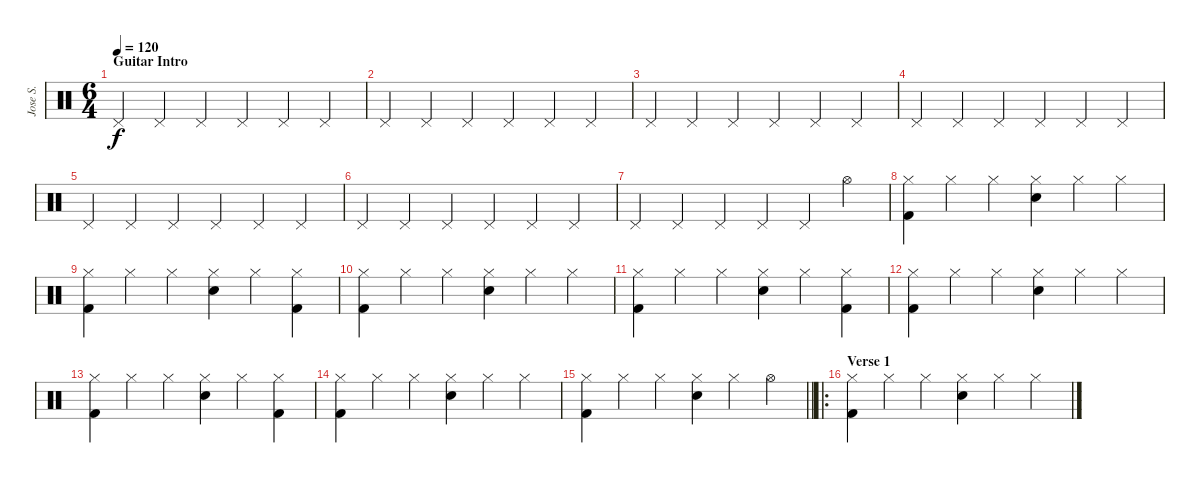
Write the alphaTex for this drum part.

\track ("Jose S." "Jose S.") {instrument percussion}
\staff {score}
\articulation defaults
\ts (6 4)
\section ("" "Guitar Intro")
\tempo 120
\clef neutral
\ks c "Pedal Hi-Hat (hit)".4{dy f} "Pedal Hi-Hat (hit)".4{volume 8} "Pedal Hi-Hat (hit)".4{volume 5} "Pedal Hi-Hat (hit)".4{volume 3} "Pedal Hi-Hat (hit)".4{volume 2} "Pedal Hi-Hat (hit)".4{volume 1}
|
"Pedal Hi-Hat (hit)".4{volume 13} "Pedal Hi-Hat (hit)".4{volume 8} "Pedal Hi-Hat (hit)".4{volume 5} "Pedal Hi-Hat (hit)".4{volume 3} "Pedal Hi-Hat (hit)".4{volume 2} "Pedal Hi-Hat (hit)".4{volume 1} |
"Pedal Hi-Hat (hit)".4{volume 13} "Pedal Hi-Hat (hit)".4{volume 8} "Pedal Hi-Hat (hit)".4{volume 5} "Pedal Hi-Hat (hit)".4{volume 3} "Pedal Hi-Hat (hit)".4{volume 2} "Pedal Hi-Hat (hit)".4{volume 1} |
"Pedal Hi-Hat (hit)".4{volume 13} "Pedal Hi-Hat (hit)".4{volume 8} "Pedal Hi-Hat (hit)".4{volume 5} "Pedal Hi-Hat (hit)".4{volume 3} "Pedal Hi-Hat (hit)".4{volume 2} "Pedal Hi-Hat (hit)".4{volume 1} |
"Pedal Hi-Hat (hit)".4{volume 13} "Pedal Hi-Hat (hit)".4{volume 8} "Pedal Hi-Hat (hit)".4{volume 5} "Pedal Hi-Hat (hit)".4{volume 3} "Pedal Hi-Hat (hit)".4{volume 2} "Pedal Hi-Hat (hit)".4{volume 1} |
"Pedal Hi-Hat (hit)".4{volume 13} "Pedal Hi-Hat (hit)".4{volume 8} "Pedal Hi-Hat (hit)".4{volume 5} "Pedal Hi-Hat (hit)".4{volume 3} "Pedal Hi-Hat (hit)".4{volume 2} "Pedal Hi-Hat (hit)".4{volume 1} |
"Pedal Hi-Hat (hit)".4{volume 13} "Pedal Hi-Hat (hit)".4{volume 8} "Pedal Hi-Hat (hit)".4{volume 5} "Pedal Hi-Hat (hit)".4{volume 3} "Pedal Hi-Hat (hit)".4{volume 2} "Hi-Hat (open)".4{volume 10} |
("Hi-Hat (closed)" "Kick (hit) 2").4{volume 13} "Hi-Hat (closed)".4 "Hi-Hat (closed)".4 ("Hi-Hat (closed)" "Snare (hit) 2").4 "Hi-Hat (closed)".4 "Hi-Hat (closed)".4 |
("Hi-Hat (closed)" "Kick (hit) 2").4 "Hi-Hat (closed)".4 "Hi-Hat (closed)".4 ("Hi-Hat (closed)" "Snare (hit) 2").4 "Hi-Hat (closed)".4 ("Hi-Hat (closed)" "Kick (hit) 2").4 |
("Hi-Hat (closed)" "Kick (hit) 2").4 "Hi-Hat (closed)".4 "Hi-Hat (closed)".4 ("Hi-Hat (closed)" "Snare (hit) 2").4 "Hi-Hat (closed)".4 "Hi-Hat (closed)".4 |
("Hi-Hat (closed)" "Kick (hit) 2").4 "Hi-Hat (closed)".4 "Hi-Hat (closed)".4 ("Hi-Hat (closed)" "Snare (hit) 2").4 "Hi-Hat (closed)".4 ("Hi-Hat (closed)" "Kick (hit) 2").4 |
("Hi-Hat (closed)" "Kick (hit) 2").4 "Hi-Hat (closed)".4 "Hi-Hat (closed)".4 ("Hi-Hat (closed)" "Snare (hit) 2").4 "Hi-Hat (closed)".4 "Hi-Hat (closed)".4 |
("Hi-Hat (closed)" "Kick (hit) 2").4 "Hi-Hat (closed)".4 "Hi-Hat (closed)".4 ("Hi-Hat (closed)" "Snare (hit) 2").4 "Hi-Hat (closed)".4 ("Hi-Hat (closed)" "Kick (hit) 2").4 |
("Hi-Hat (closed)" "Kick (hit) 2").4 "Hi-Hat (closed)".4 "Hi-Hat (closed)".4 ("Hi-Hat (closed)" "Snare (hit) 2").4 "Hi-Hat (closed)".4 "Hi-Hat (closed)".4 |
\barLineRight lightlight
("Hi-Hat (closed)" "Kick (hit) 2").4 "Hi-Hat (closed)".4 "Hi-Hat (closed)".4 ("Hi-Hat (closed)" "Snare (hit) 2").4 "Hi-Hat (closed)".4 "Hi-Hat (open)".4 |
\ro
\section ("" "Verse 1")
("Hi-Hat (closed)" "Kick (hit) 2").4{volume 13} "Hi-Hat (closed)".4 "Hi-Hat (closed)".4 ("Hi-Hat (closed)" "Snare (hit) 2").4 "Hi-Hat (closed)".4 "Hi-Hat (closed)".4
